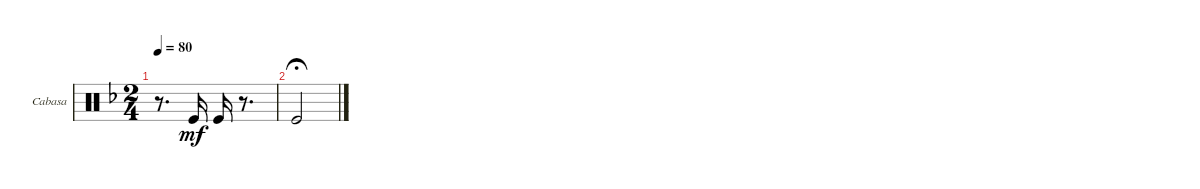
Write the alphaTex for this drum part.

\defaultSystemsLayout 4
\bracketExtendMode groupsimilarinstruments
\firstSystemTrackNameOrientation horizontal
\otherSystemsTrackNameOrientation horizontal
\track ("Cabasa" "Cabasa") {instrument percussion}
\staff {score}
\articulation defaults
\ts (2 4)
\tempo 80
\clef neutral
\ks f
r.8{d dy mf} "Kick (hit)".16 "Kick (hit)".16 r.8{d} |
"Kick (hit)".2{fermata (medium 0.3)}
